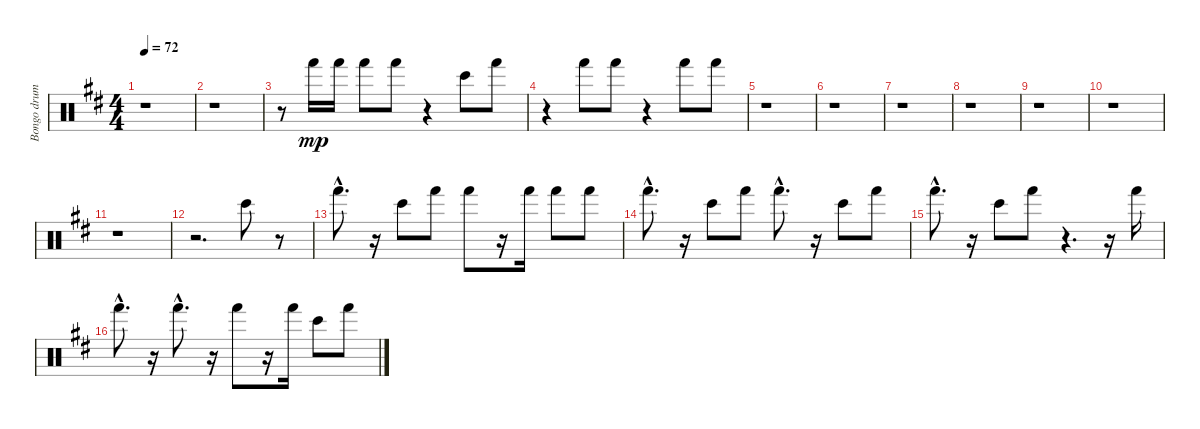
\track ("Bongo drums" "Bongo drum") {instrument percussion}
\staff {score}
\articulation defaults
\ts (4 4)
\tempo 72
\clef neutral
\ks d
r.1{dy mp} |
r.1 |
r.8 "Hand (hit)".16 "Hand (hit)".16 "Hand (hit)".8 "Hand (hit)".8 r.4 "Bongo High (hit)".8 "Hand (hit)".8 |
r.4 "Hand (hit)".8 "Hand (hit)".8 r.4 "Hand (hit)".8 "Hand (hit)".8 |
r.1 |
r.1 |
r.1 |
r.1 |
r.1 |
r.1 |
r.1 |
r.2{d} "Bongo High (hit)".8 r.8 |
"Hand (hit)"{hac}.8{d} r.16 "Bongo High (hit)".8 "Hand (hit)".8 "Hand (hit)".8 r.16 "Hand (hit)".16 "Hand (hit)".8 "Hand (hit)".8 |
"Hand (hit)"{hac}.8{d} r.16 "Bongo High (hit)".8 "Hand (hit)".8 "Hand (hit)"{hac}.8{d} r.16 "Bongo High (hit)".8 "Hand (hit)".8 |
"Hand (hit)"{hac}.8{d} r.16 "Bongo High (hit)".8 "Hand (hit)".8 r.4{d} r.16 "Hand (hit)".16 |
"Hand (hit)"{hac}.8{d} r.16 "Hand (hit)"{hac}.8{d} r.16 "Hand (hit)".8 r.16 "Hand (hit)".16 "Bongo High (hit)".8 "Hand (hit)".8
